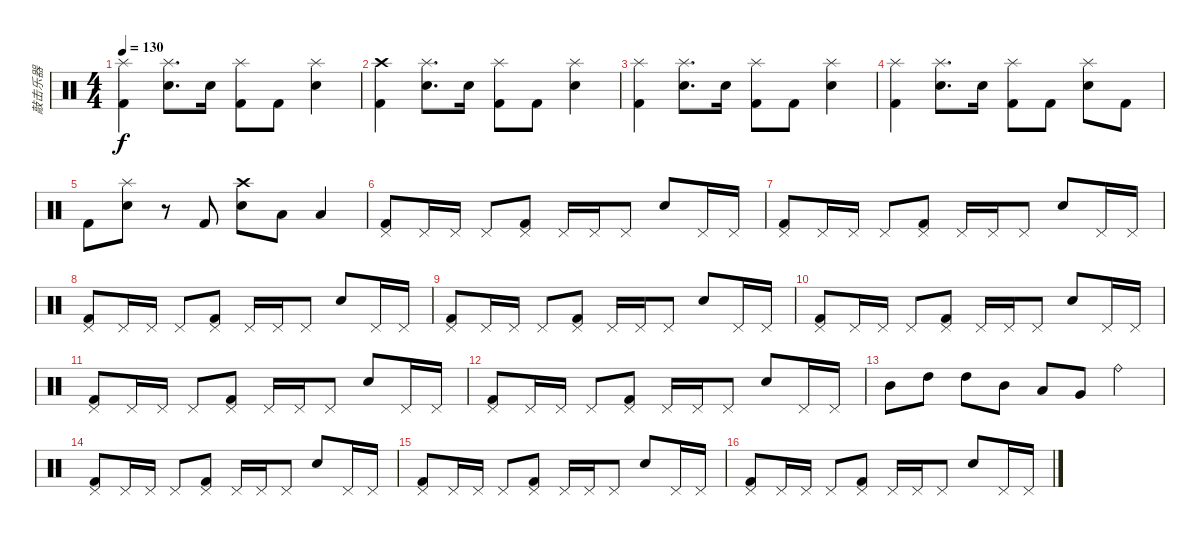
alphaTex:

\track ("敲击乐器" "敲击乐器") {instrument percussion}
\staff {score}
\articulation defaults
\ts (4 4)
\tempo 130
\clef neutral
\ks c
("Splash (hit)" "Kick (hit) 2").4{dy f} ("Splash (hit)" "Snare (hit) 2").8{d} "Snare (hit) 2".16 ("Splash (hit)" "Kick (hit) 2").8 "Kick (hit) 2".8 ("Splash (hit)" "Snare (hit) 2").4 |
("Crash high (hit)" "Kick (hit) 2").4 ("Splash (hit)" "Snare (hit) 2").8{d} "Snare (hit) 2".16 ("Splash (hit)" "Kick (hit) 2").8 "Kick (hit) 2".8 ("Splash (hit)" "Snare (hit) 2").4 |
("Splash (hit)" "Kick (hit) 2").4 ("Splash (hit)" "Snare (hit) 2").8{d} "Snare (hit) 2".16 ("Splash (hit)" "Kick (hit) 2").8 "Kick (hit) 2".8 ("Splash (hit)" "Snare (hit) 2").4 |
("Splash (hit)" "Kick (hit) 2").4 ("Splash (hit)" "Snare (hit) 2").8{d} "Snare (hit) 2".16 ("Splash (hit)" "Kick (hit) 2").8 "Kick (hit) 2".8 ("Splash (hit)" "Snare (hit) 2").8 "Kick (hit) 2".8 |
"Kick (hit) 2".8 ("Splash (hit)" "Snare (hit) 2").8 r.8 "Kick (hit) 2".8 ("Crash high (hit)" "Snare (hit) 2").8 "Low Tom (hit)".8 "Low Floor Tom (hit)".4 |
("Pedal Hi-Hat (hit)" "Kick (hit) 2").8 "Pedal Hi-Hat (hit)".16 "Pedal Hi-Hat (hit)".16 "Pedal Hi-Hat (hit)".8 ("Pedal Hi-Hat (hit)" "Kick (hit) 2").8 "Pedal Hi-Hat (hit)".16 "Pedal Hi-Hat (hit)".16 "Pedal Hi-Hat (hit)".8 "Snare (hit) 2".8 "Pedal Hi-Hat (hit)".16 "Pedal Hi-Hat (hit)".16 |
("Pedal Hi-Hat (hit)" "Kick (hit) 2").8 "Pedal Hi-Hat (hit)".16 "Pedal Hi-Hat (hit)".16 "Pedal Hi-Hat (hit)".8 ("Pedal Hi-Hat (hit)" "Kick (hit) 2").8 "Pedal Hi-Hat (hit)".16 "Pedal Hi-Hat (hit)".16 "Pedal Hi-Hat (hit)".8 "Snare (hit) 2".8 "Pedal Hi-Hat (hit)".16 "Pedal Hi-Hat (hit)".16 |
("Pedal Hi-Hat (hit)" "Kick (hit) 2").8 "Pedal Hi-Hat (hit)".16 "Pedal Hi-Hat (hit)".16 "Pedal Hi-Hat (hit)".8 ("Pedal Hi-Hat (hit)" "Kick (hit) 2").8 "Pedal Hi-Hat (hit)".16 "Pedal Hi-Hat (hit)".16 "Pedal Hi-Hat (hit)".8 "Snare (hit) 2".8 "Pedal Hi-Hat (hit)".16 "Pedal Hi-Hat (hit)".16 |
("Pedal Hi-Hat (hit)" "Kick (hit) 2").8 "Pedal Hi-Hat (hit)".16 "Pedal Hi-Hat (hit)".16 "Pedal Hi-Hat (hit)".8 ("Pedal Hi-Hat (hit)" "Kick (hit) 2").8 "Pedal Hi-Hat (hit)".16 "Pedal Hi-Hat (hit)".16 "Pedal Hi-Hat (hit)".8 "Snare (hit) 2".8 "Pedal Hi-Hat (hit)".16 "Pedal Hi-Hat (hit)".16 |
("Pedal Hi-Hat (hit)" "Kick (hit) 2").8 "Pedal Hi-Hat (hit)".16 "Pedal Hi-Hat (hit)".16 "Pedal Hi-Hat (hit)".8 ("Pedal Hi-Hat (hit)" "Kick (hit) 2").8 "Pedal Hi-Hat (hit)".16 "Pedal Hi-Hat (hit)".16 "Pedal Hi-Hat (hit)".8 "Snare (hit) 2".8 "Pedal Hi-Hat (hit)".16 "Pedal Hi-Hat (hit)".16 |
("Pedal Hi-Hat (hit)" "Kick (hit) 2").8 "Pedal Hi-Hat (hit)".16 "Pedal Hi-Hat (hit)".16 "Pedal Hi-Hat (hit)".8 ("Pedal Hi-Hat (hit)" "Kick (hit) 2").8 "Pedal Hi-Hat (hit)".16 "Pedal Hi-Hat (hit)".16 "Pedal Hi-Hat (hit)".8 "Snare (hit) 2".8 "Pedal Hi-Hat (hit)".16 "Pedal Hi-Hat (hit)".16 |
("Pedal Hi-Hat (hit)" "Kick (hit) 2").8 "Pedal Hi-Hat (hit)".16 "Pedal Hi-Hat (hit)".16 "Pedal Hi-Hat (hit)".8 ("Pedal Hi-Hat (hit)" "Kick (hit) 2").8 "Pedal Hi-Hat (hit)".16 "Pedal Hi-Hat (hit)".16 "Pedal Hi-Hat (hit)".8 "Snare (hit) 2".8 "Pedal Hi-Hat (hit)".16 "Pedal Hi-Hat (hit)".16 |
"Mid Tom (hit)".8 "High Tom (hit)".8 "High Tom (hit)".8 "Mid Tom (hit)".8 "Low Tom (hit)".8 "Very Low Tom (hit)".8 "Ride (bell)".4 |
("Pedal Hi-Hat (hit)" "Kick (hit) 2").8 "Pedal Hi-Hat (hit)".16 "Pedal Hi-Hat (hit)".16 "Pedal Hi-Hat (hit)".8 ("Pedal Hi-Hat (hit)" "Kick (hit) 2").8 "Pedal Hi-Hat (hit)".16 "Pedal Hi-Hat (hit)".16 "Pedal Hi-Hat (hit)".8 "Snare (hit) 2".8 "Pedal Hi-Hat (hit)".16 "Pedal Hi-Hat (hit)".16 |
("Pedal Hi-Hat (hit)" "Kick (hit) 2").8 "Pedal Hi-Hat (hit)".16 "Pedal Hi-Hat (hit)".16 "Pedal Hi-Hat (hit)".8 ("Pedal Hi-Hat (hit)" "Kick (hit) 2").8 "Pedal Hi-Hat (hit)".16 "Pedal Hi-Hat (hit)".16 "Pedal Hi-Hat (hit)".8 "Snare (hit) 2".8 "Pedal Hi-Hat (hit)".16 "Pedal Hi-Hat (hit)".16 |
("Pedal Hi-Hat (hit)" "Kick (hit) 2").8 "Pedal Hi-Hat (hit)".16 "Pedal Hi-Hat (hit)".16 "Pedal Hi-Hat (hit)".8 ("Pedal Hi-Hat (hit)" "Kick (hit) 2").8 "Pedal Hi-Hat (hit)".16 "Pedal Hi-Hat (hit)".16 "Pedal Hi-Hat (hit)".8 "Snare (hit) 2".8 "Pedal Hi-Hat (hit)".16 "Pedal Hi-Hat (hit)".16
